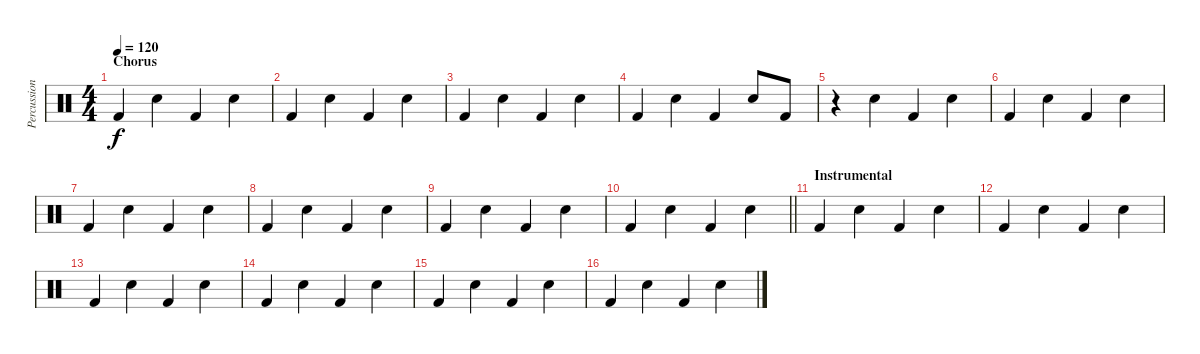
\track ("Percussion" "Percussion") {instrument percussion}
\staff {score}
\articulation defaults
\ts (4 4)
\section ("" "Chorus")
\tempo 120
\clef neutral
\ks c "Kick (hit) 2".4{dy f} "Snare (hit) 2".4 "Kick (hit) 2".4 "Snare (hit) 2".4
|
"Kick (hit) 2".4 "Snare (hit) 2".4 "Kick (hit) 2".4 "Snare (hit) 2".4 |
"Kick (hit) 2".4 "Snare (hit) 2".4 "Kick (hit) 2".4 "Snare (hit) 2".4 |
"Kick (hit) 2".4 "Snare (hit) 2".4 "Kick (hit) 2".4 "Snare (hit) 2".8 "Kick (hit) 2".8 |
r.4 "Snare (hit) 2".4 "Kick (hit) 2".4 "Snare (hit) 2".4 |
"Kick (hit) 2".4 "Snare (hit) 2".4 "Kick (hit) 2".4 "Snare (hit) 2".4 |
"Kick (hit) 2".4 "Snare (hit) 2".4 "Kick (hit) 2".4 "Snare (hit) 2".4 |
"Kick (hit) 2".4 "Snare (hit) 2".4 "Kick (hit) 2".4 "Snare (hit) 2".4 |
"Kick (hit) 2".4 "Snare (hit) 2".4 "Kick (hit) 2".4 "Snare (hit) 2".4 |
\barLineRight lightlight "Kick (hit) 2".4 "Snare (hit) 2".4 "Kick (hit) 2".4 "Snare (hit) 2".4
|
\section ("" "Instrumental")
"Kick (hit) 2".4 "Snare (hit) 2".4 "Kick (hit) 2".4 "Snare (hit) 2".4 |
"Kick (hit) 2".4 "Snare (hit) 2".4 "Kick (hit) 2".4 "Snare (hit) 2".4 |
"Kick (hit) 2".4 "Snare (hit) 2".4 "Kick (hit) 2".4 "Snare (hit) 2".4 |
"Kick (hit) 2".4 "Snare (hit) 2".4 "Kick (hit) 2".4 "Snare (hit) 2".4 |
"Kick (hit) 2".4 "Snare (hit) 2".4 "Kick (hit) 2".4 "Snare (hit) 2".4 |
"Kick (hit) 2".4 "Snare (hit) 2".4 "Kick (hit) 2".4 "Snare (hit) 2".4
